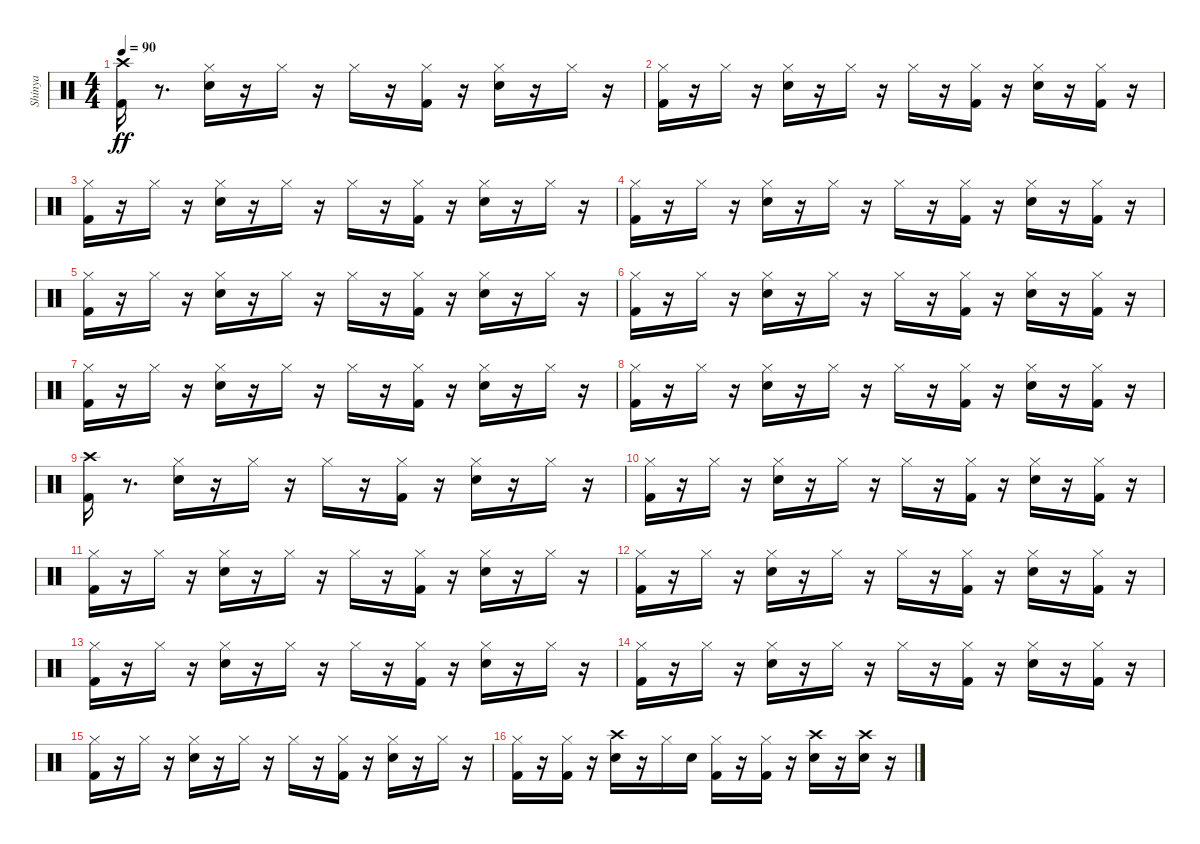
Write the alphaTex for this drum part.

\track ("Shinya" "Shinya") {instrument percussion}
\staff {score}
\articulation defaults
\ts (4 4)
\tempo 90
\clef neutral
\ks c
("Crash high (hit)" "Kick (hit) 2").16{dy ff} r.8{d} ("Snare (hit) 2" "Hi-Hat (closed)").16 r.16 "Hi-Hat (closed)".16 r.16 "Hi-Hat (closed)".16 r.16 ("Hi-Hat (closed)" "Kick (hit) 2").16 r.16 ("Snare (hit) 2" "Hi-Hat (closed)").16 r.16 "Hi-Hat (closed)".16 r.16 |
("Hi-Hat (closed)" "Kick (hit) 2").16 r.16 "Hi-Hat (closed)".16 r.16 ("Snare (hit) 2" "Hi-Hat (closed)").16 r.16 "Hi-Hat (closed)".16 r.16 "Hi-Hat (closed)".16 r.16 ("Hi-Hat (closed)" "Kick (hit) 2").16 r.16 ("Snare (hit) 2" "Hi-Hat (closed)").16 r.16 ("Hi-Hat (closed)" "Kick (hit) 2").16 r.16 |
("Hi-Hat (closed)" "Kick (hit) 2").16 r.16 "Hi-Hat (closed)".16 r.16 ("Snare (hit) 2" "Hi-Hat (closed)").16 r.16 "Hi-Hat (closed)".16 r.16 "Hi-Hat (closed)".16 r.16 ("Hi-Hat (closed)" "Kick (hit) 2").16 r.16 ("Snare (hit) 2" "Hi-Hat (closed)").16 r.16 "Hi-Hat (closed)".16 r.16 |
("Hi-Hat (closed)" "Kick (hit) 2").16 r.16 "Hi-Hat (closed)".16 r.16 ("Snare (hit) 2" "Hi-Hat (closed)").16 r.16 "Hi-Hat (closed)".16 r.16 "Hi-Hat (closed)".16 r.16 ("Hi-Hat (closed)" "Kick (hit) 2").16 r.16 ("Snare (hit) 2" "Hi-Hat (closed)").16 r.16 ("Hi-Hat (closed)" "Kick (hit) 2").16 r.16 |
("Hi-Hat (closed)" "Kick (hit) 2").16 r.16 "Hi-Hat (closed)".16 r.16 ("Snare (hit) 2" "Hi-Hat (closed)").16 r.16 "Hi-Hat (closed)".16 r.16 "Hi-Hat (closed)".16 r.16 ("Hi-Hat (closed)" "Kick (hit) 2").16 r.16 ("Snare (hit) 2" "Hi-Hat (closed)").16 r.16 "Hi-Hat (closed)".16 r.16 |
("Hi-Hat (closed)" "Kick (hit) 2").16 r.16 "Hi-Hat (closed)".16 r.16 ("Snare (hit) 2" "Hi-Hat (closed)").16 r.16 "Hi-Hat (closed)".16 r.16 "Hi-Hat (closed)".16 r.16 ("Hi-Hat (closed)" "Kick (hit) 2").16 r.16 ("Snare (hit) 2" "Hi-Hat (closed)").16 r.16 ("Hi-Hat (closed)" "Kick (hit) 2").16 r.16 |
("Hi-Hat (closed)" "Kick (hit) 2").16 r.16 "Hi-Hat (closed)".16 r.16 ("Snare (hit) 2" "Hi-Hat (closed)").16 r.16 "Hi-Hat (closed)".16 r.16 "Hi-Hat (closed)".16 r.16 ("Hi-Hat (closed)" "Kick (hit) 2").16 r.16 ("Snare (hit) 2" "Hi-Hat (closed)").16 r.16 "Hi-Hat (closed)".16 r.16 |
("Hi-Hat (closed)" "Kick (hit) 2").16 r.16 "Hi-Hat (closed)".16 r.16 ("Snare (hit) 2" "Hi-Hat (closed)").16 r.16 "Hi-Hat (closed)".16 r.16 "Hi-Hat (closed)".16 r.16 ("Hi-Hat (closed)" "Kick (hit) 2").16 r.16 ("Snare (hit) 2" "Hi-Hat (closed)").16 r.16 ("Hi-Hat (closed)" "Kick (hit) 2").16 r.16 |
("Crash high (hit)" "Kick (hit) 2").16 r.8{d} ("Snare (hit) 2" "Hi-Hat (closed)").16 r.16 "Hi-Hat (closed)".16 r.16 "Hi-Hat (closed)".16 r.16 ("Hi-Hat (closed)" "Kick (hit) 2").16 r.16 ("Snare (hit) 2" "Hi-Hat (closed)").16 r.16 "Hi-Hat (closed)".16 r.16 |
("Hi-Hat (closed)" "Kick (hit) 2").16 r.16 "Hi-Hat (closed)".16 r.16 ("Snare (hit) 2" "Hi-Hat (closed)").16 r.16 "Hi-Hat (closed)".16 r.16 "Hi-Hat (closed)".16 r.16 ("Hi-Hat (closed)" "Kick (hit) 2").16 r.16 ("Snare (hit) 2" "Hi-Hat (closed)").16 r.16 ("Hi-Hat (closed)" "Kick (hit) 2").16 r.16 |
("Hi-Hat (closed)" "Kick (hit) 2").16 r.16 "Hi-Hat (closed)".16 r.16 ("Snare (hit) 2" "Hi-Hat (closed)").16 r.16 "Hi-Hat (closed)".16 r.16 "Hi-Hat (closed)".16 r.16 ("Hi-Hat (closed)" "Kick (hit) 2").16 r.16 ("Snare (hit) 2" "Hi-Hat (closed)").16 r.16 "Hi-Hat (closed)".16 r.16 |
("Hi-Hat (closed)" "Kick (hit) 2").16 r.16 "Hi-Hat (closed)".16 r.16 ("Snare (hit) 2" "Hi-Hat (closed)").16 r.16 "Hi-Hat (closed)".16 r.16 "Hi-Hat (closed)".16 r.16 ("Hi-Hat (closed)" "Kick (hit) 2").16 r.16 ("Snare (hit) 2" "Hi-Hat (closed)").16 r.16 ("Hi-Hat (closed)" "Kick (hit) 2").16 r.16 |
("Hi-Hat (closed)" "Kick (hit) 2").16 r.16 "Hi-Hat (closed)".16 r.16 ("Snare (hit) 2" "Hi-Hat (closed)").16 r.16 "Hi-Hat (closed)".16 r.16 "Hi-Hat (closed)".16 r.16 ("Hi-Hat (closed)" "Kick (hit) 2").16 r.16 ("Snare (hit) 2" "Hi-Hat (closed)").16 r.16 "Hi-Hat (closed)".16 r.16 |
("Hi-Hat (closed)" "Kick (hit) 2").16 r.16 "Hi-Hat (closed)".16 r.16 ("Snare (hit) 2" "Hi-Hat (closed)").16 r.16 "Hi-Hat (closed)".16 r.16 "Hi-Hat (closed)".16 r.16 ("Hi-Hat (closed)" "Kick (hit) 2").16 r.16 ("Snare (hit) 2" "Hi-Hat (closed)").16 r.16 ("Hi-Hat (closed)" "Kick (hit) 2").16 r.16 |
("Hi-Hat (closed)" "Kick (hit) 2").16 r.16 "Hi-Hat (closed)".16 r.16 ("Snare (hit) 2" "Hi-Hat (closed)").16 r.16 "Hi-Hat (closed)".16 r.16 "Hi-Hat (closed)".16 r.16 ("Hi-Hat (closed)" "Kick (hit) 2").16 r.16 ("Snare (hit) 2" "Hi-Hat (closed)").16 r.16 "Hi-Hat (closed)".16 r.16 |
("Hi-Hat (closed)" "Kick (hit) 2").16 r.16 ("Hi-Hat (closed)" "Kick (hit) 2").16 r.16 ("Crash high (hit)" "Snare (hit) 2").16 r.16 "Hi-Hat (closed)".16 "Snare (hit) 2".16 ("Hi-Hat (closed)" "Kick (hit) 2").16 r.16 ("Hi-Hat (closed)" "Kick (hit) 2").16 r.16 ("Snare (hit) 2" "Crash high (hit)").16 r.16 ("Snare (hit) 2" "Crash high (hit)").16 r.16
